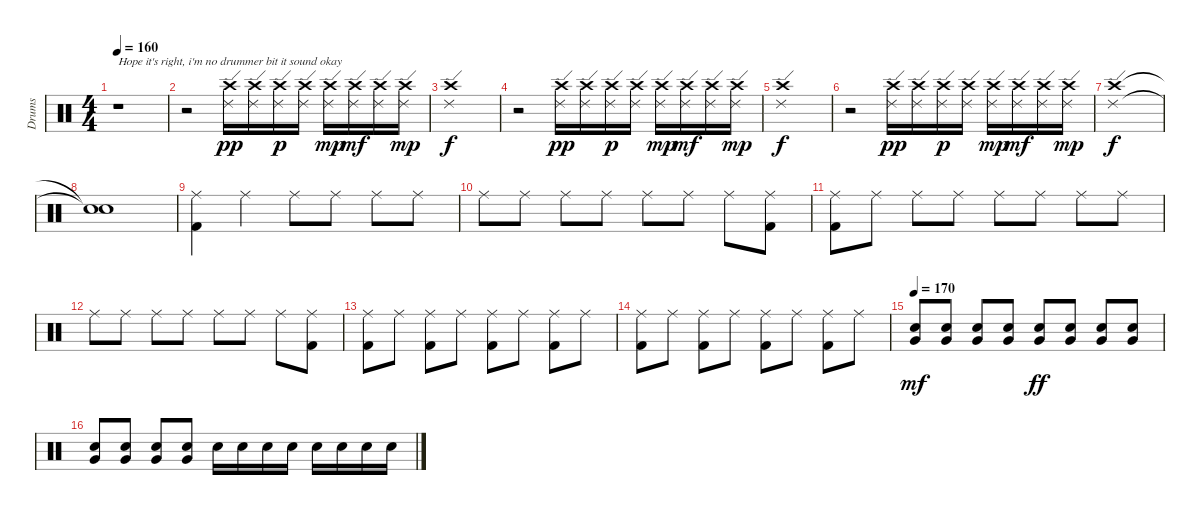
\track ("Drums" "Drums") {instrument percussion}
\staff {score}
\articulation defaults
\ts (4 4)
\tempo 160
\clef neutral
\ks c
r.1{txt "Hope it's right, i'm no drummer bit it sound okay" dy pp} |
r.2 ("Crash high (hit)" "Ride (edge) 2").16 ("Crash high (hit)" "Ride (edge) 2").16 ("Crash high (hit)" "Ride (edge) 2").16{dy p} ("Crash high (hit)" "Ride (edge) 2").16 ("Crash high (hit)" "Ride (edge) 2").16{dy mp} ("Crash high (hit)" "Ride (edge) 2").16{dy mf} ("Crash high (hit)" "Ride (edge) 2").16 ("Crash high (hit)" "Ride (edge) 2").16{dy mp} |
("Crash high (hit)" "Ride (edge) 2").1{dy f} |
r.2 ("Crash high (hit)" "Ride (edge) 2").16{dy pp} ("Crash high (hit)" "Ride (edge) 2").16 ("Crash high (hit)" "Ride (edge) 2").16{dy p} ("Crash high (hit)" "Ride (edge) 2").16 ("Crash high (hit)" "Ride (edge) 2").16{dy mp} ("Crash high (hit)" "Ride (edge) 2").16{dy mf} ("Crash high (hit)" "Ride (edge) 2").16 ("Crash high (hit)" "Ride (edge) 2").16{dy mp} |
("Crash high (hit)" "Ride (edge) 2").1{dy f} |
r.2 ("Crash high (hit)" "Ride (edge) 2").16{dy pp} ("Crash high (hit)" "Ride (edge) 2").16 ("Crash high (hit)" "Ride (edge) 2").16{dy p} ("Crash high (hit)" "Ride (edge) 2").16 ("Crash high (hit)" "Ride (edge) 2").16{dy mp} ("Crash high (hit)" "Ride (edge) 2").16{dy mf} ("Crash high (hit)" "Ride (edge) 2").16 ("Crash high (hit)" "Ride (edge) 2").16{dy mp} |
("Crash high (hit)" "Ride (edge) 2").1{dy f} |
("Snare (hit)"{t} "Snare (hit)"{t}).1 |
("Ride (middle)" "Kick (hit) 2").4 "Ride (middle)".4 "Ride (middle)".8 "Ride (middle)".8 "Ride (middle)".8 "Ride (middle)".8 |
"Ride (middle)".8 "Ride (middle)".8 "Ride (middle)".8 "Ride (middle)".8 "Ride (middle)".8 "Ride (middle)".8 "Ride (middle)".8 ("Ride (middle)" "Kick (hit) 2").8 |
("Ride (middle)" "Kick (hit) 2").8 "Ride (middle)".8 "Ride (middle)".8 "Ride (middle)".8 "Ride (middle)".8 "Ride (middle)".8 "Ride (middle)".8 "Ride (middle)".8 |
"Ride (middle)".8 "Ride (middle)".8 "Ride (middle)".8 "Ride (middle)".8 "Ride (middle)".8 "Ride (middle)".8 "Ride (middle)".8 ("Ride (middle)" "Kick (hit) 2").8 |
("Ride (middle)" "Kick (hit) 2").8 "Ride (middle)".8 ("Ride (middle)" "Kick (hit) 2").8 "Ride (middle)".8 ("Ride (middle)" "Kick (hit) 2").8 "Ride (middle)".8 ("Ride (middle)" "Kick (hit) 2").8 "Ride (middle)".8 |
("Ride (middle)" "Kick (hit) 2").8 "Ride (middle)".8 ("Ride (middle)" "Kick (hit) 2").8 "Ride (middle)".8 ("Ride (middle)" "Kick (hit) 2").8 "Ride (middle)".8 ("Ride (middle)" "Kick (hit) 2").8 "Ride (middle)".8 |
\tempo 170
("Very Low Tom (hit)" "Electric Snare (hit)").8{dy mf} ("Very Low Tom (hit)" "Electric Snare (hit)").8 ("Very Low Tom (hit)" "Electric Snare (hit)").8 ("Very Low Tom (hit)" "Electric Snare (hit)").8 ("Very Low Tom (hit)" "Electric Snare (hit)").8{dy ff} ("Very Low Tom (hit)" "Electric Snare (hit)").8 ("Very Low Tom (hit)" "Electric Snare (hit)").8 ("Very Low Tom (hit)" "Electric Snare (hit)").8 |
("Very Low Tom (hit)" "Electric Snare (hit)").8 ("Very Low Tom (hit)" "Electric Snare (hit)").8 ("Very Low Tom (hit)" "Electric Snare (hit)").8 ("Very Low Tom (hit)" "Electric Snare (hit)").8 "Electric Snare (hit)".16 "Electric Snare (hit)".16 "Electric Snare (hit)".16 "Electric Snare (hit)".16 "Electric Snare (hit)".16 "Electric Snare (hit)".16 "Electric Snare (hit)".16 "Electric Snare (hit)".16
